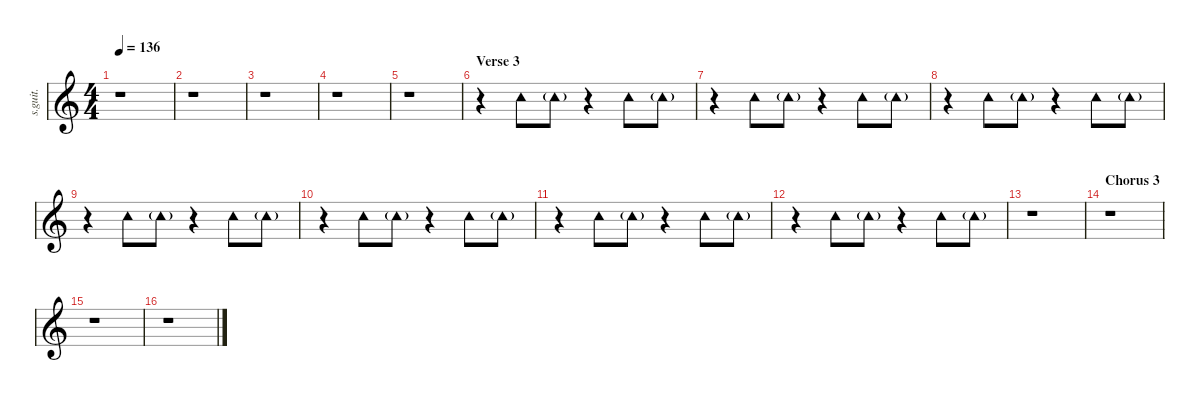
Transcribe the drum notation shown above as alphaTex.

\defaultSystemsLayout 4
\hideDynamics
\bracketExtendMode nobrackets
\track ("Tambourine" "s.guit.") {instrument percussion}
\staff {score}
\articulation defaults
\ts (4 4)
\tempo 136
\clef g2
\ks c
r.1{dy mf} |
r.1 |
r.1 |
r.1 |
r.1 |
\section ("" "Verse 3")
r.4 "Tambourine (hit)".8{lyrics (0 "") lyrics (1 "") lyrics (2 "") lyrics (3 "") lyrics (4 "")} "Tambourine (hit)"{g}.8{lyrics (0 "") lyrics (1 "") lyrics (2 "") lyrics (3 "") lyrics (4 "")} r.4 "Tambourine (hit)".8{lyrics (0 "") lyrics (1 "") lyrics (2 "") lyrics (3 "") lyrics (4 "")} "Tambourine (hit)"{g}.8{lyrics (0 "") lyrics (1 "") lyrics (2 "") lyrics (3 "") lyrics (4 "")} |
r.4 "Tambourine (hit)".8{lyrics (0 "") lyrics (1 "") lyrics (2 "") lyrics (3 "") lyrics (4 "")} "Tambourine (hit)"{g}.8{lyrics (0 "") lyrics (1 "") lyrics (2 "") lyrics (3 "") lyrics (4 "")} r.4 "Tambourine (hit)".8{lyrics (0 "") lyrics (1 "") lyrics (2 "") lyrics (3 "") lyrics (4 "")} "Tambourine (hit)"{g}.8{lyrics (0 "") lyrics (1 "") lyrics (2 "") lyrics (3 "") lyrics (4 "")} |
r.4 "Tambourine (hit)".8{lyrics (0 "") lyrics (1 "") lyrics (2 "") lyrics (3 "") lyrics (4 "")} "Tambourine (hit)"{g}.8{lyrics (0 "") lyrics (1 "") lyrics (2 "") lyrics (3 "") lyrics (4 "")} r.4 "Tambourine (hit)".8{lyrics (0 "") lyrics (1 "") lyrics (2 "") lyrics (3 "") lyrics (4 "")} "Tambourine (hit)"{g}.8{lyrics (0 "") lyrics (1 "") lyrics (2 "") lyrics (3 "") lyrics (4 "")} |
r.4 "Tambourine (hit)".8{lyrics (0 "") lyrics (1 "") lyrics (2 "") lyrics (3 "") lyrics (4 "")} "Tambourine (hit)"{g}.8{lyrics (0 "") lyrics (1 "") lyrics (2 "") lyrics (3 "") lyrics (4 "")} r.4 "Tambourine (hit)".8{lyrics (0 "") lyrics (1 "") lyrics (2 "") lyrics (3 "") lyrics (4 "")} "Tambourine (hit)"{g}.8{lyrics (0 "") lyrics (1 "") lyrics (2 "") lyrics (3 "") lyrics (4 "")} |
r.4 "Tambourine (hit)".8{lyrics (0 "") lyrics (1 "") lyrics (2 "") lyrics (3 "") lyrics (4 "")} "Tambourine (hit)"{g}.8{lyrics (0 "") lyrics (1 "") lyrics (2 "") lyrics (3 "") lyrics (4 "")} r.4 "Tambourine (hit)".8{lyrics (0 "") lyrics (1 "") lyrics (2 "") lyrics (3 "") lyrics (4 "")} "Tambourine (hit)"{g}.8{lyrics (0 "") lyrics (1 "") lyrics (2 "") lyrics (3 "") lyrics (4 "")} |
r.4 "Tambourine (hit)".8{lyrics (0 "") lyrics (1 "") lyrics (2 "") lyrics (3 "") lyrics (4 "")} "Tambourine (hit)"{g}.8{lyrics (0 "") lyrics (1 "") lyrics (2 "") lyrics (3 "") lyrics (4 "")} r.4 "Tambourine (hit)".8{lyrics (0 "") lyrics (1 "") lyrics (2 "") lyrics (3 "") lyrics (4 "")} "Tambourine (hit)"{g}.8{lyrics (0 "") lyrics (1 "") lyrics (2 "") lyrics (3 "") lyrics (4 "")} |
r.4 "Tambourine (hit)".8{lyrics (0 "") lyrics (1 "") lyrics (2 "") lyrics (3 "") lyrics (4 "")} "Tambourine (hit)"{g}.8{lyrics (0 "") lyrics (1 "") lyrics (2 "") lyrics (3 "") lyrics (4 "")} r.4 "Tambourine (hit)".8{lyrics (0 "") lyrics (1 "") lyrics (2 "") lyrics (3 "") lyrics (4 "")} "Tambourine (hit)"{g}.8{lyrics (0 "") lyrics (1 "") lyrics (2 "") lyrics (3 "") lyrics (4 "")} |
r.1 |
\section ("" "Chorus 3")
r.1 |
r.1 |
r.1
